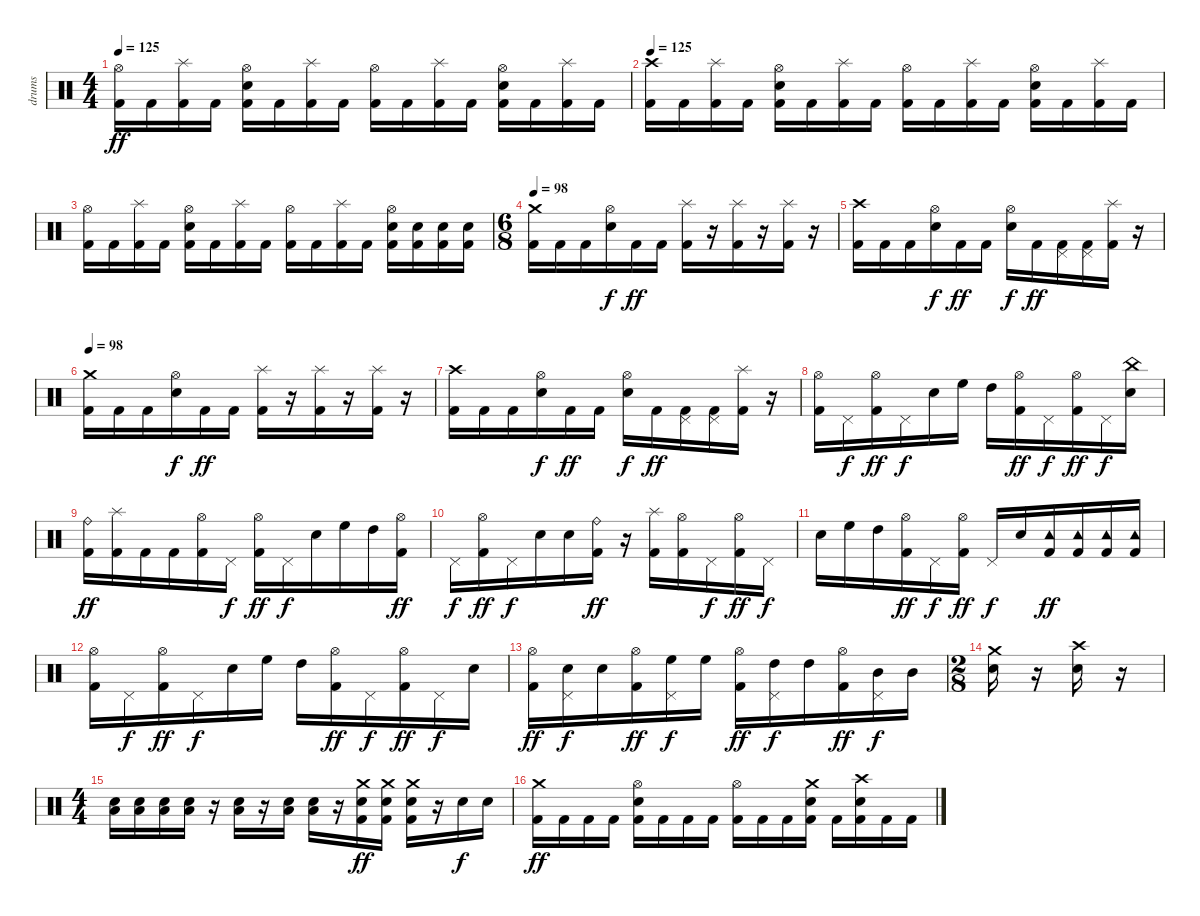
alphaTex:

\track ("drums" "drums") {instrument percussion}
\staff {score}
\articulation defaults
\ts (4 4)
\tempo 125
\clef neutral
\ks c
("Hi-Hat (open)" "Kick (hit) 2").16{dy ff} "Kick (hit) 2".16 ("Splash (hit)" "Kick (hit) 2").16 "Kick (hit) 2".16 ("Hi-Hat (open)" "Electric Snare (hit)" "Kick (hit) 2").16 "Kick (hit) 2".16 ("Splash (hit)" "Kick (hit) 2").16 "Kick (hit) 2".16 ("Hi-Hat (open)" "Kick (hit) 2").16 "Kick (hit) 2".16 ("Splash (hit)" "Kick (hit) 2").16 "Kick (hit) 2".16 ("Hi-Hat (open)" "Electric Snare (hit)" "Kick (hit) 2").16 "Kick (hit) 2".16 ("Splash (hit)" "Kick (hit) 2").16 "Kick (hit) 2".16 |
\tempo 125
("Crash high (hit)" "Kick (hit) 2").16 "Kick (hit) 2".16 ("Splash (hit)" "Kick (hit) 2").16 "Kick (hit) 2".16 ("Hi-Hat (open)" "Electric Snare (hit)" "Kick (hit) 2").16 "Kick (hit) 2".16 ("Splash (hit)" "Kick (hit) 2").16 "Kick (hit) 2".16 ("Hi-Hat (open)" "Kick (hit) 2").16 "Kick (hit) 2".16 ("Splash (hit)" "Kick (hit) 2").16 "Kick (hit) 2".16 ("Hi-Hat (open)" "Electric Snare (hit)" "Kick (hit) 2").16 "Kick (hit) 2".16 ("Splash (hit)" "Kick (hit) 2").16 "Kick (hit) 2".16 |
("Hi-Hat (open)" "Kick (hit) 2").16 "Kick (hit) 2".16 ("Splash (hit)" "Kick (hit) 2").16 "Kick (hit) 2".16 ("Hi-Hat (open)" "Electric Snare (hit)" "Kick (hit) 2").16 "Kick (hit) 2".16 ("Splash (hit)" "Kick (hit) 2").16 "Kick (hit) 2".16 ("Hi-Hat (open)" "Kick (hit) 2").16 "Kick (hit) 2".16 ("Splash (hit)" "Kick (hit) 2").16 "Kick (hit) 2".16 ("Hi-Hat (open)" "Electric Snare (hit)" "Kick (hit) 2").16 ("Electric Snare (hit)" "Kick (hit) 2").16 ("Electric Snare (hit)" "Kick (hit) 2").16 ("Electric Snare (hit)" "Kick (hit) 2").16 |
\ts (6 8)
\tempo 98
("Crash medium (hit)" "Kick (hit) 2").16 "Kick (hit) 2".16 "Kick (hit) 2".16 ("Hi-Hat (open)" "Electric Snare (hit)").16{dy f} "Kick (hit) 2".16{dy ff} "Kick (hit) 2".16 ("Splash (hit)" "Kick (hit) 2").16 r.16 ("Splash (hit)" "Kick (hit) 2").16 r.16 ("Splash (hit)" "Kick (hit) 2").16 r.16 |
("Crash high (hit)" "Kick (hit) 2").16 "Kick (hit) 2".16 "Kick (hit) 2".16 ("Hi-Hat (open)" "Electric Snare (hit)").16{dy f} "Kick (hit) 2".16{dy ff} "Kick (hit) 2".16 ("Hi-Hat (open)" "Electric Snare (hit)").16{dy f} "Kick (hit) 2".16{dy ff} ("Pedal Hi-Hat (hit)" "Kick (hit) 2").16 ("Pedal Hi-Hat (hit)" "Kick (hit) 2").16 ("Splash (hit)" "Kick (hit) 2").16 r.16 |
\tempo 98
("Crash medium (hit)" "Kick (hit) 2").16 "Kick (hit) 2".16 "Kick (hit) 2".16 ("Hi-Hat (open)" "Electric Snare (hit)").16{dy f} "Kick (hit) 2".16{dy ff} "Kick (hit) 2".16 ("Splash (hit)" "Kick (hit) 2").16 r.16 ("Splash (hit)" "Kick (hit) 2").16 r.16 ("Splash (hit)" "Kick (hit) 2").16 r.16 |
("Crash high (hit)" "Kick (hit) 2").16 "Kick (hit) 2".16 "Kick (hit) 2".16 ("Hi-Hat (open)" "Electric Snare (hit)").16{dy f} "Kick (hit) 2".16{dy ff} "Kick (hit) 2".16 ("Hi-Hat (open)" "Electric Snare (hit)").16{dy f} "Kick (hit) 2".16{dy ff} ("Pedal Hi-Hat (hit)" "Kick (hit) 2").16 ("Pedal Hi-Hat (hit)" "Kick (hit) 2").16 ("Splash (hit)" "Kick (hit) 2").16 r.16 |
("Hi-Hat (open)" "Kick (hit) 2").16 "Pedal Hi-Hat (hit)".16{dy f} ("Hi-Hat (open)" "Kick (hit) 2").16{dy ff} "Pedal Hi-Hat (hit)".16{dy f} "Electric Snare (hit)".16 "High Floor Tom (hit)".16 "High Tom (hit)".16 ("Hi-Hat (open)" "Kick (hit) 2").16{dy ff} "Pedal Hi-Hat (hit)".16{dy f} ("Hi-Hat (open)" "Kick (hit) 2").16{dy ff} "Pedal Hi-Hat (hit)".16{dy f} ("China (hit)" "Electric Snare (hit)").16 |
("Ride (bell)" "Kick (hit) 2").16{dy ff} ("Splash (hit)" "Kick (hit) 2").16 "Kick (hit) 2".16 "Kick (hit) 2".16 ("Hi-Hat (open)" "Kick (hit) 2").16 "Pedal Hi-Hat (hit)".16{dy f} ("Hi-Hat (open)" "Kick (hit) 2").16{dy ff} "Pedal Hi-Hat (hit)".16{dy f} "Electric Snare (hit)".16 "High Floor Tom (hit)".16 "High Tom (hit)".16 ("Hi-Hat (open)" "Kick (hit) 2").16{dy ff} |
"Pedal Hi-Hat (hit)".16{dy f} ("Hi-Hat (open)" "Kick (hit) 2").16{dy ff} "Pedal Hi-Hat (hit)".16{dy f} "Electric Snare (hit)".16 "Electric Snare (hit)".16 ("Ride (bell)" "Kick (hit) 2").16{dy ff} r.16 ("Splash (hit)" "Kick (hit) 2").16 ("Hi-Hat (open)" "Kick (hit) 2").16 "Pedal Hi-Hat (hit)".16{dy f} ("Hi-Hat (open)" "Kick (hit) 2").16{dy ff} "Pedal Hi-Hat (hit)".16{dy f} |
"Electric Snare (hit)".16 "High Floor Tom (hit)".16 "High Tom (hit)".16 ("Hi-Hat (open)" "Kick (hit) 2").16{dy ff} "Pedal Hi-Hat (hit)".16{dy f} ("Hi-Hat (open)" "Kick (hit) 2").16{dy ff} "Pedal Hi-Hat (hit)".16{dy f} "Electric Snare (hit)".16 ("Tambourine (hit)" "Kick (hit) 2").16{dy ff} ("Tambourine (hit)" "Kick (hit) 2").16 ("Tambourine (hit)" "Kick (hit) 2").16 ("Tambourine (hit)" "Kick (hit) 2").16 |
("Hi-Hat (open)" "Kick (hit) 2").16 "Pedal Hi-Hat (hit)".16{dy f} ("Hi-Hat (open)" "Kick (hit) 2").16{dy ff} "Pedal Hi-Hat (hit)".16{dy f} "Electric Snare (hit)".16 "High Floor Tom (hit)".16 "High Tom (hit)".16 ("Hi-Hat (open)" "Kick (hit) 2").16{dy ff} "Pedal Hi-Hat (hit)".16{dy f} ("Hi-Hat (open)" "Kick (hit) 2").16{dy ff} "Pedal Hi-Hat (hit)".16{dy f} "Electric Snare (hit)".16 |
("Hi-Hat (open)" "Kick (hit) 2").16{dy ff} ("Pedal Hi-Hat (hit)" "Electric Snare (hit)").16{dy f} "Electric Snare (hit)".16 ("Hi-Hat (open)" "Kick (hit) 2").16{dy ff} ("Pedal Hi-Hat (hit)" "High Floor Tom (hit)").16{dy f} "High Floor Tom (hit)".16 ("Hi-Hat (open)" "Kick (hit) 2").16{dy ff} ("Pedal Hi-Hat (hit)" "High Tom (hit)").16{dy f} "High Tom (hit)".16 ("Hi-Hat (open)" "Kick (hit) 2").16{dy ff} ("Pedal Hi-Hat (hit)" "Mid Tom (hit)").16{dy f} "Mid Tom (hit)".16 |
\ts (2 8)
("Crash medium (hit)" "Electric Snare (hit)").16 r.16 ("Crash high (hit)" "Electric Snare (hit)").16 r.16 |
\ts (4 4)
("Electric Snare (hit)" "Low Floor Tom (hit)").16 ("Electric Snare (hit)" "Low Floor Tom (hit)").16 ("Electric Snare (hit)" "Low Floor Tom (hit)").16 ("Electric Snare (hit)" "Low Floor Tom (hit)").16 r.16 ("Electric Snare (hit)" "Low Floor Tom (hit)").16 r.16 ("Electric Snare (hit)" "Low Floor Tom (hit)").16 ("Electric Snare (hit)" "Low Floor Tom (hit)").16 r.16 ("Crash medium (hit)" "Electric Snare (hit)" "Kick (hit) 2").16{dy ff} ("Crash medium (hit)" "Electric Snare (hit)" "Kick (hit) 2").16 ("Crash medium (hit)" "Electric Snare (hit)" "Kick (hit) 2").16 r.16 "Electric Snare (hit)".16{dy f} "Electric Snare (hit)".16 |
("Crash medium (hit)" "Kick (hit) 2").16{dy ff} "Kick (hit) 2".16 "Kick (hit) 2".16 "Kick (hit) 2".16 ("Hi-Hat (open)" "Electric Snare (hit)" "Kick (hit) 2").16 "Kick (hit) 2".16 "Kick (hit) 2".16 "Kick (hit) 2".16 ("Hi-Hat (open)" "Kick (hit) 2").16 "Kick (hit) 2".16 "Kick (hit) 2".16 ("Crash medium (hit)" "Electric Snare (hit)" "Kick (hit) 2").16 "Kick (hit) 2".16 ("Crash high (hit)" "Electric Snare (hit)" "Kick (hit) 2").16 "Kick (hit) 2".16 "Kick (hit) 2".16
